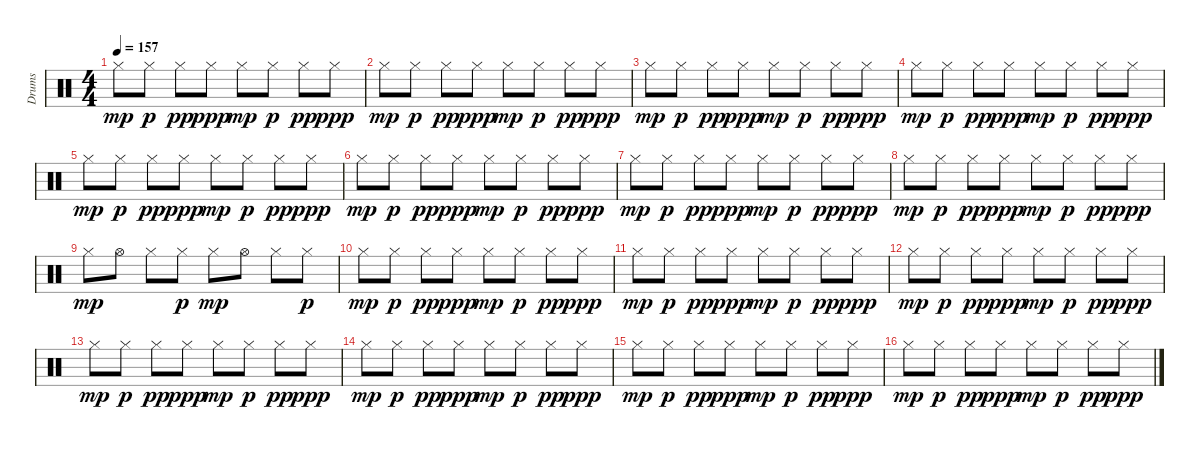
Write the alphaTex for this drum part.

\track ("Drums" "Drums") {instrument percussion}
\staff {score}
\articulation defaults
\ts (4 4)
\tempo 157
\clef neutral
\ks c "Hi-Hat (closed)".8{dy mp} "Hi-Hat (closed)".8{dy p} "Hi-Hat (closed)".8{dy pp} "Hi-Hat (closed)".8{dy ppp} "Hi-Hat (closed)".8{dy mp} "Hi-Hat (closed)".8{dy p} "Hi-Hat (closed)".8{dy pp} "Hi-Hat (closed)".8{dy ppp}
|
"Hi-Hat (closed)".8{dy mp} "Hi-Hat (closed)".8{dy p} "Hi-Hat (closed)".8{dy pp} "Hi-Hat (closed)".8{dy ppp} "Hi-Hat (closed)".8{dy mp} "Hi-Hat (closed)".8{dy p} "Hi-Hat (closed)".8{dy pp} "Hi-Hat (closed)".8{dy ppp} |
"Hi-Hat (closed)".8{dy mp} "Hi-Hat (closed)".8{dy p} "Hi-Hat (closed)".8{dy pp} "Hi-Hat (closed)".8{dy ppp} "Hi-Hat (closed)".8{dy mp} "Hi-Hat (closed)".8{dy p} "Hi-Hat (closed)".8{dy pp} "Hi-Hat (closed)".8{dy ppp} |
"Hi-Hat (closed)".8{dy mp} "Hi-Hat (closed)".8{dy p} "Hi-Hat (closed)".8{dy pp} "Hi-Hat (closed)".8{dy ppp} "Hi-Hat (closed)".8{dy mp} "Hi-Hat (closed)".8{dy p} "Hi-Hat (closed)".8{dy pp} "Hi-Hat (closed)".8{dy ppp} |
"Hi-Hat (closed)".8{dy mp} "Hi-Hat (closed)".8{dy p} "Hi-Hat (closed)".8{dy pp} "Hi-Hat (closed)".8{dy ppp} "Hi-Hat (closed)".8{dy mp} "Hi-Hat (closed)".8{dy p} "Hi-Hat (closed)".8{dy pp} "Hi-Hat (closed)".8{dy ppp} |
"Hi-Hat (closed)".8{dy mp} "Hi-Hat (closed)".8{dy p} "Hi-Hat (closed)".8{dy pp} "Hi-Hat (closed)".8{dy ppp} "Hi-Hat (closed)".8{dy mp} "Hi-Hat (closed)".8{dy p} "Hi-Hat (closed)".8{dy pp} "Hi-Hat (closed)".8{dy ppp} |
"Hi-Hat (closed)".8{dy mp} "Hi-Hat (closed)".8{dy p} "Hi-Hat (closed)".8{dy pp} "Hi-Hat (closed)".8{dy ppp} "Hi-Hat (closed)".8{dy mp} "Hi-Hat (closed)".8{dy p} "Hi-Hat (closed)".8{dy pp} "Hi-Hat (closed)".8{dy ppp} |
"Hi-Hat (closed)".8{dy mp} "Hi-Hat (closed)".8{dy p} "Hi-Hat (closed)".8{dy pp} "Hi-Hat (closed)".8{dy ppp} "Hi-Hat (closed)".8{dy mp} "Hi-Hat (closed)".8{dy p} "Hi-Hat (closed)".8{dy pp} "Hi-Hat (closed)".8{dy ppp} |
"Hi-Hat (closed)".8{dy mp} "Hi-Hat (open)".8 "Hi-Hat (closed)".8 "Hi-Hat (closed)".8{dy p} "Hi-Hat (closed)".8{dy mp} "Hi-Hat (open)".8 "Hi-Hat (closed)".8 "Hi-Hat (closed)".8{dy p} |
"Hi-Hat (closed)".8{dy mp} "Hi-Hat (closed)".8{dy p} "Hi-Hat (closed)".8{dy pp} "Hi-Hat (closed)".8{dy ppp} "Hi-Hat (closed)".8{dy mp} "Hi-Hat (closed)".8{dy p} "Hi-Hat (closed)".8{dy pp} "Hi-Hat (closed)".8{dy ppp} |
"Hi-Hat (closed)".8{dy mp} "Hi-Hat (closed)".8{dy p} "Hi-Hat (closed)".8{dy pp} "Hi-Hat (closed)".8{dy ppp} "Hi-Hat (closed)".8{dy mp} "Hi-Hat (closed)".8{dy p} "Hi-Hat (closed)".8{dy pp} "Hi-Hat (closed)".8{dy ppp} |
"Hi-Hat (closed)".8{dy mp} "Hi-Hat (closed)".8{dy p} "Hi-Hat (closed)".8{dy pp} "Hi-Hat (closed)".8{dy ppp} "Hi-Hat (closed)".8{dy mp} "Hi-Hat (closed)".8{dy p} "Hi-Hat (closed)".8{dy pp} "Hi-Hat (closed)".8{dy ppp} |
"Hi-Hat (closed)".8{dy mp} "Hi-Hat (closed)".8{dy p} "Hi-Hat (closed)".8{dy pp} "Hi-Hat (closed)".8{dy ppp} "Hi-Hat (closed)".8{dy mp} "Hi-Hat (closed)".8{dy p} "Hi-Hat (closed)".8{dy pp} "Hi-Hat (closed)".8{dy ppp} |
"Hi-Hat (closed)".8{dy mp} "Hi-Hat (closed)".8{dy p} "Hi-Hat (closed)".8{dy pp} "Hi-Hat (closed)".8{dy ppp} "Hi-Hat (closed)".8{dy mp} "Hi-Hat (closed)".8{dy p} "Hi-Hat (closed)".8{dy pp} "Hi-Hat (closed)".8{dy ppp} |
"Hi-Hat (closed)".8{dy mp} "Hi-Hat (closed)".8{dy p} "Hi-Hat (closed)".8{dy pp} "Hi-Hat (closed)".8{dy ppp} "Hi-Hat (closed)".8{dy mp} "Hi-Hat (closed)".8{dy p} "Hi-Hat (closed)".8{dy pp} "Hi-Hat (closed)".8{dy ppp} |
"Hi-Hat (closed)".8{dy mp} "Hi-Hat (closed)".8{dy p} "Hi-Hat (closed)".8{dy pp} "Hi-Hat (closed)".8{dy ppp} "Hi-Hat (closed)".8{dy mp} "Hi-Hat (closed)".8{dy p} "Hi-Hat (closed)".8{dy pp} "Hi-Hat (closed)".8{dy ppp}
